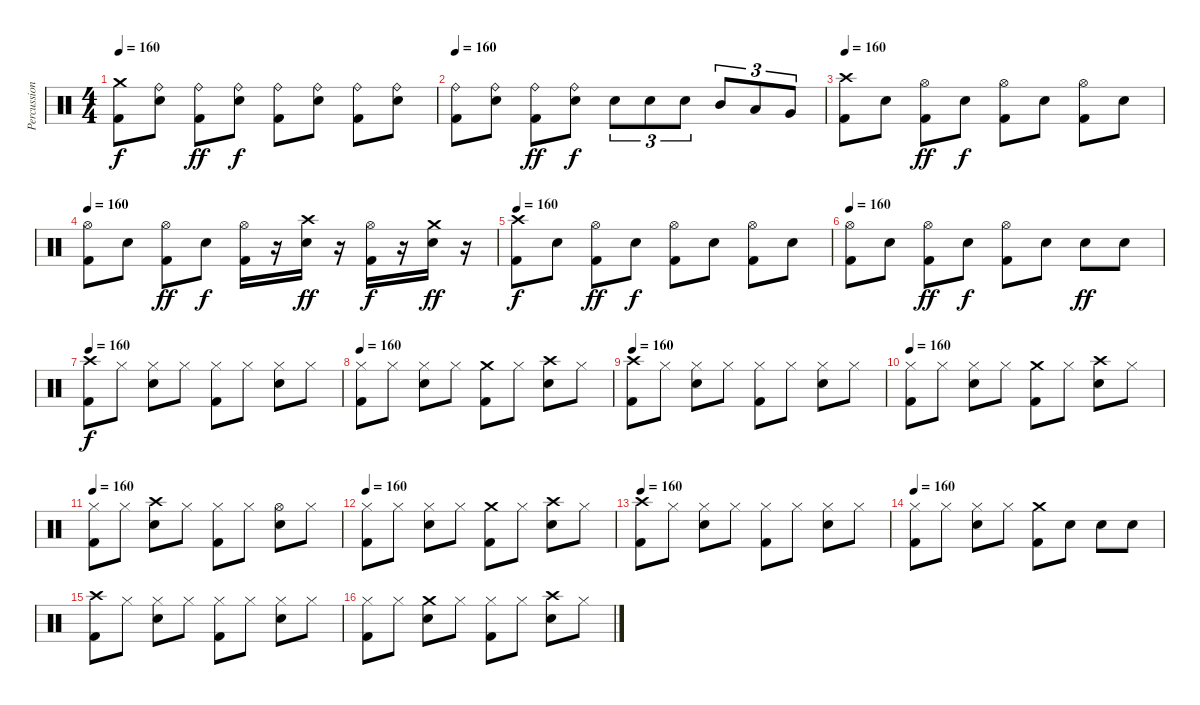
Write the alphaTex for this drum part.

\track ("Percussion" "Percussion") {instrument percussion}
\staff {score}
\articulation defaults
\ts (4 4)
\tempo 160
\clef neutral
\ks c
("Crash medium (hit)" "Kick (hit) 2").8{dy f} ("Ride (bell)" "Snare (hit) 2").8 ("Ride (bell)" "Kick (hit) 2").8{dy ff} ("Ride (bell)" "Snare (hit) 2").8{dy f} ("Ride (bell)" "Kick (hit) 2").8 ("Ride (bell)" "Snare (hit) 2").8 ("Ride (bell)" "Kick (hit) 2").8 ("Ride (bell)" "Snare (hit) 2").8 |
\tempo 160
("Ride (bell)" "Kick (hit) 2").8 ("Ride (bell)" "Snare (hit) 2").8 ("Ride (bell)" "Kick (hit) 2").8{dy ff} ("Ride (bell)" "Snare (hit) 2").8{dy f} "Snare (hit) 2".8{tu (3 2)} "Snare (hit) 2".8{tu (3 2)} "Snare (hit) 2".8{tu (3 2)} "Mid Tom (hit)".8{tu (3 2)} "Low Tom (hit)".8{tu (3 2)} "Very Low Tom (hit)".8{tu (3 2)} |
\tempo 160
("Crash high (hit)" "Kick (hit) 2").8 "Snare (hit) 2".8 ("Hi-Hat (open)" "Kick (hit) 2").8{dy ff} "Snare (hit) 2".8{dy f} ("Hi-Hat (open)" "Kick (hit) 2").8 "Snare (hit) 2".8 ("Hi-Hat (open)" "Kick (hit) 2").8 "Snare (hit) 2".8 |
\tempo 160
("Hi-Hat (open)" "Kick (hit) 2").8 "Snare (hit) 2".8 ("Hi-Hat (open)" "Kick (hit) 2").8{dy ff} "Snare (hit) 2".8{dy f} ("Hi-Hat (open)" "Kick (hit) 2").16 r.16 ("Crash high (hit)" "Snare (hit) 2").16{dy ff} r.16 ("Hi-Hat (open)" "Kick (hit) 2").16{dy f} r.16 ("Crash medium (hit)" "Snare (hit) 2").16{dy ff} r.16 |
\tempo 160
("Crash high (hit)" "Kick (hit) 2").8{dy f} "Snare (hit) 2".8 ("Hi-Hat (open)" "Kick (hit) 2").8{dy ff} "Snare (hit) 2".8{dy f} ("Hi-Hat (open)" "Kick (hit) 2").8 "Snare (hit) 2".8 ("Hi-Hat (open)" "Kick (hit) 2").8 "Snare (hit) 2".8 |
\tempo 160
("Hi-Hat (open)" "Kick (hit) 2").8 "Snare (hit) 2".8 ("Hi-Hat (open)" "Kick (hit) 2").8{dy ff} "Snare (hit) 2".8{dy f} ("Hi-Hat (open)" "Kick (hit) 2").8 "Snare (hit) 2".8 "Snare (hit) 2".8{dy ff} "Snare (hit) 2".8 |
\tempo 160
("Crash high (hit)" "Kick (hit) 2").8{dy f} "Hi-Hat (closed)".8 ("Hi-Hat (closed)" "Snare (hit) 2").8 "Hi-Hat (closed)".8 ("Hi-Hat (closed)" "Kick (hit) 2").8 "Hi-Hat (closed)".8 ("Hi-Hat (closed)" "Snare (hit) 2").8 "Hi-Hat (closed)".8 |
\tempo 160
("Hi-Hat (closed)" "Kick (hit) 2").8 "Hi-Hat (closed)".8 ("Hi-Hat (closed)" "Snare (hit) 2").8 "Hi-Hat (closed)".8 ("Crash medium (hit)" "Kick (hit) 2").8 "Hi-Hat (closed)".8 ("Crash high (hit)" "Snare (hit) 2").8 "Hi-Hat (closed)".8 |
\tempo 160
("Crash high (hit)" "Kick (hit) 2").8 "Hi-Hat (closed)".8 ("Hi-Hat (closed)" "Snare (hit) 2").8 "Hi-Hat (closed)".8 ("Hi-Hat (closed)" "Kick (hit) 2").8 "Hi-Hat (closed)".8 ("Hi-Hat (closed)" "Snare (hit) 2").8 "Hi-Hat (closed)".8 |
\tempo 160
("Hi-Hat (closed)" "Kick (hit) 2").8 "Hi-Hat (closed)".8 ("Hi-Hat (closed)" "Snare (hit) 2").8 "Hi-Hat (closed)".8 ("Crash medium (hit)" "Kick (hit) 2").8 "Hi-Hat (closed)".8 ("Crash high (hit)" "Snare (hit) 2").8 "Hi-Hat (closed)".8 |
\tempo 160
("Hi-Hat (closed)" "Kick (hit) 2").8 "Hi-Hat (closed)".8 ("Crash high (hit)" "Snare (hit) 2").8 "Hi-Hat (closed)".8 ("Hi-Hat (closed)" "Kick (hit) 2").8 "Hi-Hat (closed)".8 ("Hi-Hat (open)" "Snare (hit) 2").8 "Hi-Hat (closed)".8 |
\tempo 160
("Hi-Hat (closed)" "Kick (hit) 2").8 "Hi-Hat (closed)".8 ("Hi-Hat (closed)" "Snare (hit) 2").8 "Hi-Hat (closed)".8 ("Crash medium (hit)" "Kick (hit) 2").8 "Hi-Hat (closed)".8 ("Crash high (hit)" "Snare (hit) 2").8 "Hi-Hat (closed)".8 |
\tempo 160
("Crash high (hit)" "Kick (hit) 2").8 "Hi-Hat (closed)".8 ("Hi-Hat (closed)" "Snare (hit) 2").8 "Hi-Hat (closed)".8 ("Hi-Hat (closed)" "Kick (hit) 2").8 "Hi-Hat (closed)".8 ("Hi-Hat (closed)" "Snare (hit) 2").8 "Hi-Hat (closed)".8 |
\tempo 160
("Hi-Hat (closed)" "Kick (hit) 2").8 "Hi-Hat (closed)".8 ("Hi-Hat (closed)" "Snare (hit) 2").8 "Hi-Hat (closed)".8 ("Crash medium (hit)" "Kick (hit) 2").8 "Snare (hit) 2".8 "Snare (hit) 2".8 "Snare (hit) 2".8 |
("Crash high (hit)" "Kick (hit) 2").8 "Hi-Hat (closed)".8 ("Hi-Hat (closed)" "Snare (hit) 2").8 "Hi-Hat (closed)".8 ("Hi-Hat (closed)" "Kick (hit) 2").8 "Hi-Hat (closed)".8 ("Hi-Hat (closed)" "Snare (hit) 2").8 "Hi-Hat (closed)".8 |
("Hi-Hat (closed)" "Kick (hit) 2").8 "Hi-Hat (closed)".8 ("Crash medium (hit)" "Snare (hit) 2").8 "Hi-Hat (closed)".8 ("Hi-Hat (closed)" "Kick (hit) 2").8 "Hi-Hat (closed)".8 ("Crash high (hit)" "Snare (hit) 2").8 "Hi-Hat (closed)".8
